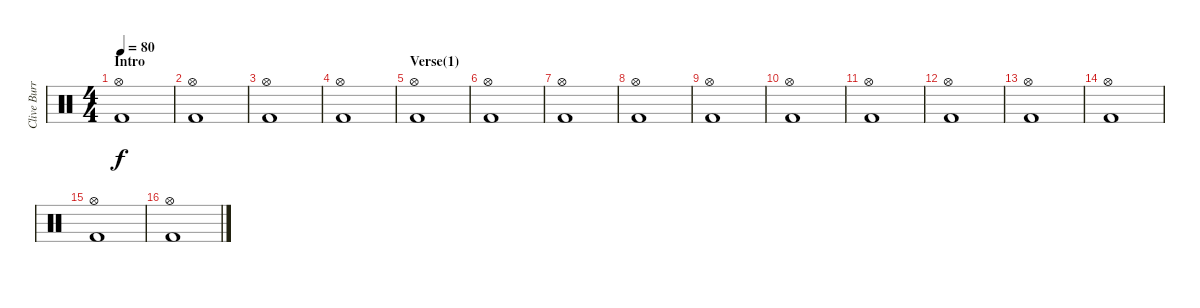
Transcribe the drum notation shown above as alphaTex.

\track ("Clive Burr (Drums)" "Clive Burr") {instrument percussion}
\staff {score}
\articulation defaults
\ts (4 4)
\section ("" "Intro")
\tempo 80
\clef neutral
\ks c
("Hi-Hat (open)" "Kick (hit) 2").1{dy f} |
("Hi-Hat (open)" "Kick (hit) 2").1 |
("Hi-Hat (open)" "Kick (hit) 2").1 |
("Hi-Hat (open)" "Kick (hit) 2").1 |
\section ("" "Verse(1)")
("Hi-Hat (open)" "Kick (hit) 2").1 |
("Hi-Hat (open)" "Kick (hit) 2").1 |
("Hi-Hat (open)" "Kick (hit) 2").1 |
("Hi-Hat (open)" "Kick (hit) 2").1 |
("Hi-Hat (open)" "Kick (hit) 2").1 |
("Hi-Hat (open)" "Kick (hit) 2").1 |
("Hi-Hat (open)" "Kick (hit) 2").1 |
("Hi-Hat (open)" "Kick (hit) 2").1 |
("Hi-Hat (open)" "Kick (hit) 2").1 |
("Hi-Hat (open)" "Kick (hit) 2").1 |
("Hi-Hat (open)" "Kick (hit) 2").1 |
("Hi-Hat (open)" "Kick (hit) 2").1
